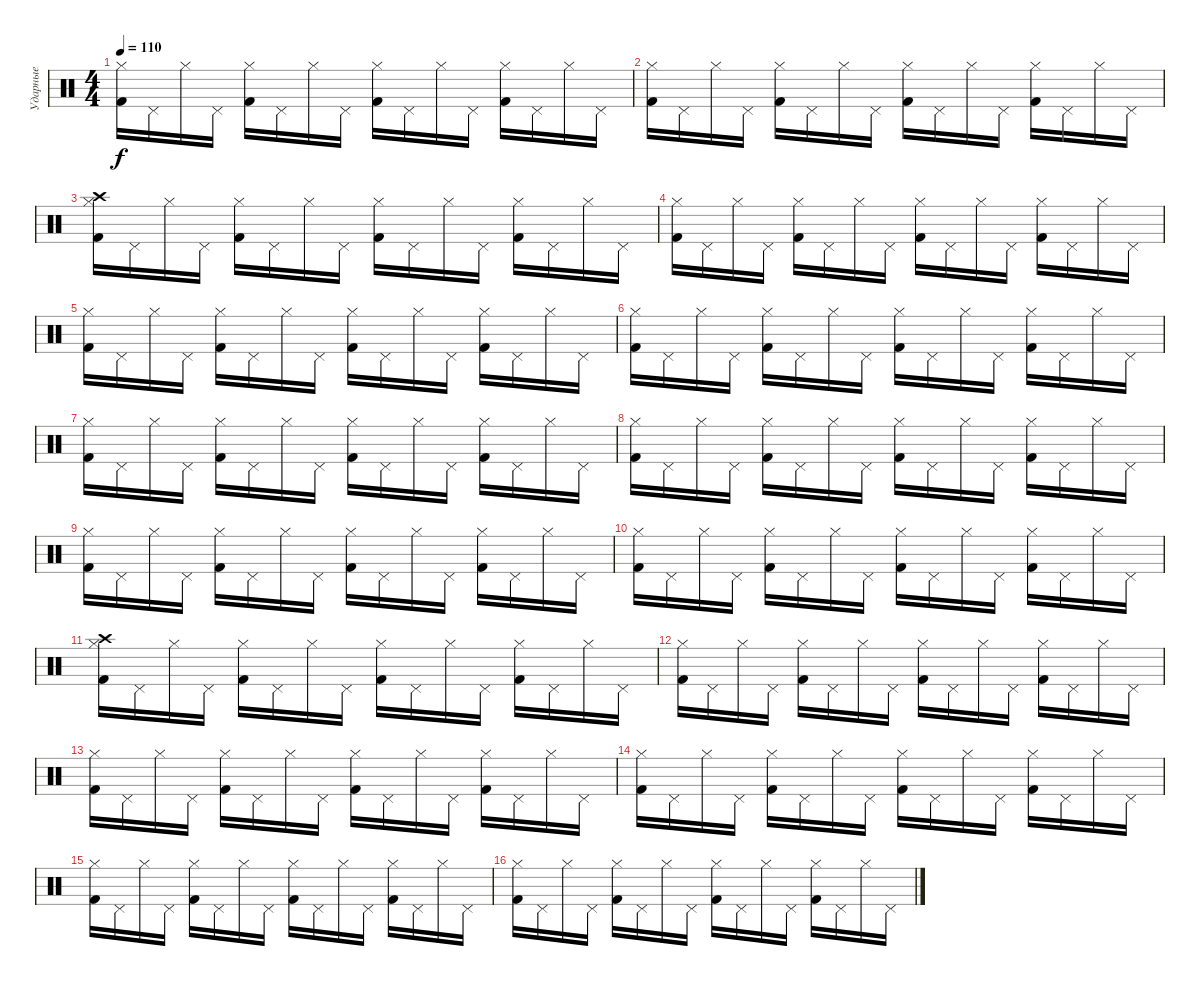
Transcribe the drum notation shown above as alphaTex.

\track ("Ударные" "Ударные") {instrument percussion}
\staff {score}
\articulation defaults
\ts (4 4)
\tempo 110
\clef neutral
\ks c
("Hi-Hat (closed)" "Kick (hit) 2").16{dy f} "Pedal Hi-Hat (hit)".16 "Hi-Hat (closed)".16 "Pedal Hi-Hat (hit)".16 ("Hi-Hat (closed)" "Kick (hit) 2").16 "Pedal Hi-Hat (hit)".16 "Hi-Hat (closed)".16 "Pedal Hi-Hat (hit)".16 ("Hi-Hat (closed)" "Kick (hit) 2").16 "Pedal Hi-Hat (hit)".16 "Hi-Hat (closed)".16 "Pedal Hi-Hat (hit)".16 ("Hi-Hat (closed)" "Kick (hit) 2").16 "Pedal Hi-Hat (hit)".16 "Hi-Hat (closed)".16 "Pedal Hi-Hat (hit)".16 |
("Hi-Hat (closed)" "Kick (hit) 2").16 "Pedal Hi-Hat (hit)".16 "Hi-Hat (closed)".16 "Pedal Hi-Hat (hit)".16 ("Hi-Hat (closed)" "Kick (hit) 2").16 "Pedal Hi-Hat (hit)".16 "Hi-Hat (closed)".16 "Pedal Hi-Hat (hit)".16 ("Hi-Hat (closed)" "Kick (hit) 2").16 "Pedal Hi-Hat (hit)".16 "Hi-Hat (closed)".16 "Pedal Hi-Hat (hit)".16 ("Hi-Hat (closed)" "Kick (hit) 2").16 "Pedal Hi-Hat (hit)".16 "Hi-Hat (closed)".16 "Pedal Hi-Hat (hit)".16 |
("Crash high (hit)" "Hi-Hat (closed)" "Kick (hit) 2").16 "Pedal Hi-Hat (hit)".16 "Hi-Hat (closed)".16 "Pedal Hi-Hat (hit)".16 ("Hi-Hat (closed)" "Kick (hit) 2").16 "Pedal Hi-Hat (hit)".16 "Hi-Hat (closed)".16 "Pedal Hi-Hat (hit)".16 ("Hi-Hat (closed)" "Kick (hit) 2").16 "Pedal Hi-Hat (hit)".16 "Hi-Hat (closed)".16 "Pedal Hi-Hat (hit)".16 ("Hi-Hat (closed)" "Kick (hit) 2").16 "Pedal Hi-Hat (hit)".16 "Hi-Hat (closed)".16 "Pedal Hi-Hat (hit)".16 |
("Hi-Hat (closed)" "Kick (hit) 2").16 "Pedal Hi-Hat (hit)".16 "Hi-Hat (closed)".16 "Pedal Hi-Hat (hit)".16 ("Hi-Hat (closed)" "Kick (hit) 2").16 "Pedal Hi-Hat (hit)".16 "Hi-Hat (closed)".16 "Pedal Hi-Hat (hit)".16 ("Hi-Hat (closed)" "Kick (hit) 2").16 "Pedal Hi-Hat (hit)".16 "Hi-Hat (closed)".16 "Pedal Hi-Hat (hit)".16 ("Hi-Hat (closed)" "Kick (hit) 2").16 "Pedal Hi-Hat (hit)".16 "Hi-Hat (closed)".16 "Pedal Hi-Hat (hit)".16 |
("Hi-Hat (closed)" "Kick (hit) 2").16 "Pedal Hi-Hat (hit)".16 "Hi-Hat (closed)".16 "Pedal Hi-Hat (hit)".16 ("Hi-Hat (closed)" "Kick (hit) 2").16 "Pedal Hi-Hat (hit)".16 "Hi-Hat (closed)".16 "Pedal Hi-Hat (hit)".16 ("Hi-Hat (closed)" "Kick (hit) 2").16 "Pedal Hi-Hat (hit)".16 "Hi-Hat (closed)".16 "Pedal Hi-Hat (hit)".16 ("Hi-Hat (closed)" "Kick (hit) 2").16 "Pedal Hi-Hat (hit)".16 "Hi-Hat (closed)".16 "Pedal Hi-Hat (hit)".16 |
("Hi-Hat (closed)" "Kick (hit) 2").16 "Pedal Hi-Hat (hit)".16 "Hi-Hat (closed)".16 "Pedal Hi-Hat (hit)".16 ("Hi-Hat (closed)" "Kick (hit) 2").16 "Pedal Hi-Hat (hit)".16 "Hi-Hat (closed)".16 "Pedal Hi-Hat (hit)".16 ("Hi-Hat (closed)" "Kick (hit) 2").16 "Pedal Hi-Hat (hit)".16 "Hi-Hat (closed)".16 "Pedal Hi-Hat (hit)".16 ("Hi-Hat (closed)" "Kick (hit) 2").16 "Pedal Hi-Hat (hit)".16 "Hi-Hat (closed)".16 "Pedal Hi-Hat (hit)".16 |
("Hi-Hat (closed)" "Kick (hit) 2").16 "Pedal Hi-Hat (hit)".16 "Hi-Hat (closed)".16 "Pedal Hi-Hat (hit)".16 ("Hi-Hat (closed)" "Kick (hit) 2").16 "Pedal Hi-Hat (hit)".16 "Hi-Hat (closed)".16 "Pedal Hi-Hat (hit)".16 ("Hi-Hat (closed)" "Kick (hit) 2").16 "Pedal Hi-Hat (hit)".16 "Hi-Hat (closed)".16 "Pedal Hi-Hat (hit)".16 ("Hi-Hat (closed)" "Kick (hit) 2").16 "Pedal Hi-Hat (hit)".16 "Hi-Hat (closed)".16 "Pedal Hi-Hat (hit)".16 |
("Hi-Hat (closed)" "Kick (hit) 2").16 "Pedal Hi-Hat (hit)".16 "Hi-Hat (closed)".16 "Pedal Hi-Hat (hit)".16 ("Hi-Hat (closed)" "Kick (hit) 2").16 "Pedal Hi-Hat (hit)".16 "Hi-Hat (closed)".16 "Pedal Hi-Hat (hit)".16 ("Hi-Hat (closed)" "Kick (hit) 2").16 "Pedal Hi-Hat (hit)".16 "Hi-Hat (closed)".16 "Pedal Hi-Hat (hit)".16 ("Hi-Hat (closed)" "Kick (hit) 2").16 "Pedal Hi-Hat (hit)".16 "Hi-Hat (closed)".16 "Pedal Hi-Hat (hit)".16 |
("Hi-Hat (closed)" "Kick (hit) 2").16 "Pedal Hi-Hat (hit)".16 "Hi-Hat (closed)".16 "Pedal Hi-Hat (hit)".16 ("Hi-Hat (closed)" "Kick (hit) 2").16 "Pedal Hi-Hat (hit)".16 "Hi-Hat (closed)".16 "Pedal Hi-Hat (hit)".16 ("Hi-Hat (closed)" "Kick (hit) 2").16 "Pedal Hi-Hat (hit)".16 "Hi-Hat (closed)".16 "Pedal Hi-Hat (hit)".16 ("Hi-Hat (closed)" "Kick (hit) 2").16 "Pedal Hi-Hat (hit)".16 "Hi-Hat (closed)".16 "Pedal Hi-Hat (hit)".16 |
("Hi-Hat (closed)" "Kick (hit) 2").16 "Pedal Hi-Hat (hit)".16 "Hi-Hat (closed)".16 "Pedal Hi-Hat (hit)".16 ("Hi-Hat (closed)" "Kick (hit) 2").16 "Pedal Hi-Hat (hit)".16 "Hi-Hat (closed)".16 "Pedal Hi-Hat (hit)".16 ("Hi-Hat (closed)" "Kick (hit) 2").16 "Pedal Hi-Hat (hit)".16 "Hi-Hat (closed)".16 "Pedal Hi-Hat (hit)".16 ("Hi-Hat (closed)" "Kick (hit) 2").16 "Pedal Hi-Hat (hit)".16 "Hi-Hat (closed)".16 "Pedal Hi-Hat (hit)".16 |
("Crash high (hit)" "Hi-Hat (closed)" "Kick (hit) 2").16 "Pedal Hi-Hat (hit)".16 "Hi-Hat (closed)".16 "Pedal Hi-Hat (hit)".16 ("Hi-Hat (closed)" "Kick (hit) 2").16 "Pedal Hi-Hat (hit)".16 "Hi-Hat (closed)".16 "Pedal Hi-Hat (hit)".16 ("Hi-Hat (closed)" "Kick (hit) 2").16 "Pedal Hi-Hat (hit)".16 "Hi-Hat (closed)".16 "Pedal Hi-Hat (hit)".16 ("Hi-Hat (closed)" "Kick (hit) 2").16 "Pedal Hi-Hat (hit)".16 "Hi-Hat (closed)".16 "Pedal Hi-Hat (hit)".16 |
("Hi-Hat (closed)" "Kick (hit) 2").16 "Pedal Hi-Hat (hit)".16 "Hi-Hat (closed)".16 "Pedal Hi-Hat (hit)".16 ("Hi-Hat (closed)" "Kick (hit) 2").16 "Pedal Hi-Hat (hit)".16 "Hi-Hat (closed)".16 "Pedal Hi-Hat (hit)".16 ("Hi-Hat (closed)" "Kick (hit) 2").16 "Pedal Hi-Hat (hit)".16 "Hi-Hat (closed)".16 "Pedal Hi-Hat (hit)".16 ("Hi-Hat (closed)" "Kick (hit) 2").16 "Pedal Hi-Hat (hit)".16 "Hi-Hat (closed)".16 "Pedal Hi-Hat (hit)".16 |
("Hi-Hat (closed)" "Kick (hit) 2").16 "Pedal Hi-Hat (hit)".16 "Hi-Hat (closed)".16 "Pedal Hi-Hat (hit)".16 ("Hi-Hat (closed)" "Kick (hit) 2").16 "Pedal Hi-Hat (hit)".16 "Hi-Hat (closed)".16 "Pedal Hi-Hat (hit)".16 ("Hi-Hat (closed)" "Kick (hit) 2").16 "Pedal Hi-Hat (hit)".16 "Hi-Hat (closed)".16 "Pedal Hi-Hat (hit)".16 ("Hi-Hat (closed)" "Kick (hit) 2").16 "Pedal Hi-Hat (hit)".16 "Hi-Hat (closed)".16 "Pedal Hi-Hat (hit)".16 |
("Hi-Hat (closed)" "Kick (hit) 2").16 "Pedal Hi-Hat (hit)".16 "Hi-Hat (closed)".16 "Pedal Hi-Hat (hit)".16 ("Hi-Hat (closed)" "Kick (hit) 2").16 "Pedal Hi-Hat (hit)".16 "Hi-Hat (closed)".16 "Pedal Hi-Hat (hit)".16 ("Hi-Hat (closed)" "Kick (hit) 2").16 "Pedal Hi-Hat (hit)".16 "Hi-Hat (closed)".16 "Pedal Hi-Hat (hit)".16 ("Hi-Hat (closed)" "Kick (hit) 2").16 "Pedal Hi-Hat (hit)".16 "Hi-Hat (closed)".16 "Pedal Hi-Hat (hit)".16 |
("Hi-Hat (closed)" "Kick (hit) 2").16 "Pedal Hi-Hat (hit)".16 "Hi-Hat (closed)".16 "Pedal Hi-Hat (hit)".16 ("Hi-Hat (closed)" "Kick (hit) 2").16 "Pedal Hi-Hat (hit)".16 "Hi-Hat (closed)".16 "Pedal Hi-Hat (hit)".16 ("Hi-Hat (closed)" "Kick (hit) 2").16 "Pedal Hi-Hat (hit)".16 "Hi-Hat (closed)".16 "Pedal Hi-Hat (hit)".16 ("Hi-Hat (closed)" "Kick (hit) 2").16 "Pedal Hi-Hat (hit)".16 "Hi-Hat (closed)".16 "Pedal Hi-Hat (hit)".16 |
("Hi-Hat (closed)" "Kick (hit) 2").16 "Pedal Hi-Hat (hit)".16 "Hi-Hat (closed)".16 "Pedal Hi-Hat (hit)".16 ("Hi-Hat (closed)" "Kick (hit) 2").16 "Pedal Hi-Hat (hit)".16 "Hi-Hat (closed)".16 "Pedal Hi-Hat (hit)".16 ("Hi-Hat (closed)" "Kick (hit) 2").16 "Pedal Hi-Hat (hit)".16 "Hi-Hat (closed)".16 "Pedal Hi-Hat (hit)".16 ("Hi-Hat (closed)" "Kick (hit) 2").16 "Pedal Hi-Hat (hit)".16 "Hi-Hat (closed)".16 "Pedal Hi-Hat (hit)".16
